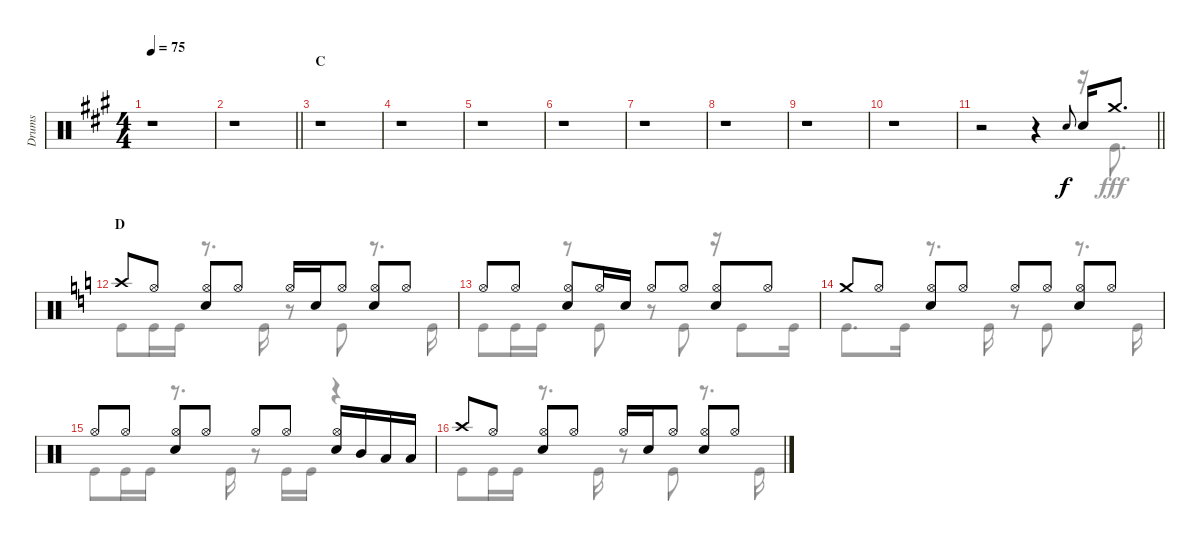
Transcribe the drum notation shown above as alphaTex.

\track ("Drums" "Drums") {instrument percussion}
\staff {score}
\articulation defaults
\voice
\ts (4 4)
\tempo 75
\clef neutral
\ks a
r.1{dy f} |
\barLineRight lightlight
r.1 |
\section ("" "C")
r.1 |
r.1 |
r.1 |
r.1 |
r.1 |
r.1 |
r.1 |
r.1 |
\barLineRight lightlight
r.2 r.4 "Snare (hit) 2".8{gr onbeat} "Snare (hit) 2".16 "Crash medium (hit)".8{d} |
\section ("" "D")
\ks c "Crash high (hit)".8 "Hi-Hat (open)".8
("Hi-Hat (open)" "Snare (hit) 2").8 "Hi-Hat (open)".8 "Hi-Hat (open)".16 "Snare (hit) 2".16 "Hi-Hat (open)".8 ("Hi-Hat (open)" "Snare (hit) 2").8 "Hi-Hat (open)".8 |
"Hi-Hat (open)".8 "Hi-Hat (open)".8 ("Hi-Hat (open)" "Snare (hit) 2").8 "Hi-Hat (open)".16 "Snare (hit) 2".16 "Hi-Hat (open)".8 "Hi-Hat (open)".8 ("Hi-Hat (open)" "Snare (hit) 2").8 "Hi-Hat (open)".8 |
"Crash medium (hit)".8 "Hi-Hat (open)".8 ("Hi-Hat (open)" "Snare (hit) 2").8 "Hi-Hat (open)".8 "Hi-Hat (open)".8 "Hi-Hat (open)".8 ("Hi-Hat (open)" "Snare (hit) 2").8 "Hi-Hat (open)".8 |
"Hi-Hat (open)".8 "Hi-Hat (open)".8 ("Hi-Hat (open)" "Snare (hit) 2").8 "Hi-Hat (open)".8 "Hi-Hat (open)".8 "Hi-Hat (open)".8 ("Hi-Hat (open)" "Snare (hit) 2").16 "Mid Tom (hit)".16 "Low Tom (hit)".16 "Low Tom (hit)".16 |
"Crash high (hit)".8 "Hi-Hat (open)".8 ("Hi-Hat (open)" "Snare (hit) 2").8 "Hi-Hat (open)".8 "Hi-Hat (open)".16 "Snare (hit) 2".16 "Hi-Hat (open)".8 ("Hi-Hat (open)" "Snare (hit) 2").8 "Hi-Hat (open)".8
\voice
\clef neutral
\ottava regular
\simile none
\ks a
r.1{dy fff} |
\barLineRight lightlight
r.1 |
r.1 |
r.1 |
r.1 |
r.1 |
r.1 |
r.1 |
r.1 |
r.1 |
\barLineRight lightlight
r.2 r.4 r.16 "Kick (hit)".8{d} |
\ks c "Kick (hit)".8 "Kick (hit)".16 "Kick (hit)".16
r.8{d} "Kick (hit)".16 r.8 "Kick (hit)".8 r.8{d} "Kick (hit)".16 |
"Kick (hit)".8 "Kick (hit)".16 "Kick (hit)".16 r.8 "Kick (hit)".8 r.8 "Kick (hit)".8 r.16 "Kick (hit)".8 "Kick (hit)".16 |
"Kick (hit)".8{d} "Kick (hit)".16 r.8{d} "Kick (hit)".16 r.8 "Kick (hit)".8 r.8{d} "Kick (hit)".16 |
"Kick (hit)".8 "Kick (hit)".16 "Kick (hit)".16 r.8{d} "Kick (hit)".16 r.8 "Kick (hit)".16 "Kick (hit)".16 r.4 |
"Kick (hit)".8 "Kick (hit)".16 "Kick (hit)".16 r.8{d} "Kick (hit)".16 r.8 "Kick (hit)".8 r.8{d} "Kick (hit)".16
